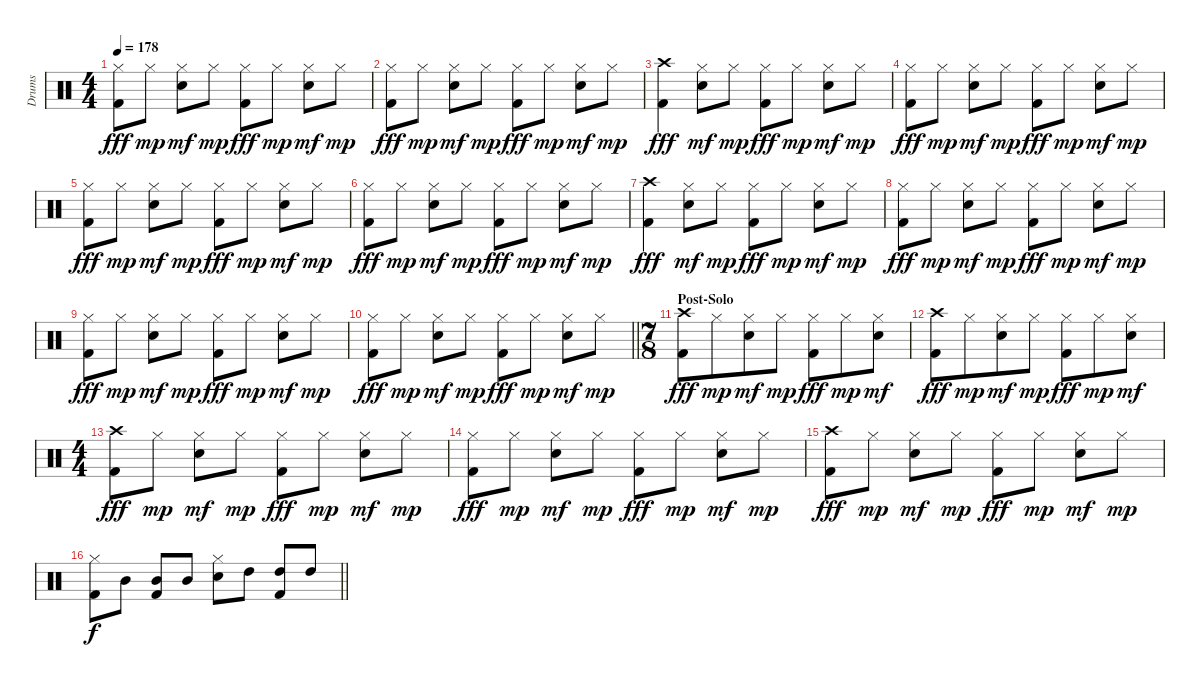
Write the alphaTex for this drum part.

\track ("Drums" "Drums") {instrument percussion}
\staff {score}
\articulation defaults
\ts (4 4)
\tempo 178
\clef neutral
\ks c
("Hi-Hat (closed)" "Kick (hit) 2").8{dy fff} "Hi-Hat (closed)".8{dy mp} ("Hi-Hat (closed)" "Electric Snare (hit)").8{dy mf} "Hi-Hat (closed)".8{dy mp} ("Hi-Hat (closed)" "Kick (hit) 2").8{dy fff} "Hi-Hat (closed)".8{dy mp} ("Hi-Hat (closed)" "Electric Snare (hit)").8{dy mf} "Hi-Hat (closed)".8{dy mp} |
("Hi-Hat (closed)" "Kick (hit) 2").8{dy fff} "Hi-Hat (closed)".8{dy mp} ("Hi-Hat (closed)" "Electric Snare (hit)").8{dy mf} "Hi-Hat (closed)".8{dy mp} ("Hi-Hat (closed)" "Kick (hit) 2").8{dy fff} "Hi-Hat (closed)".8{dy mp} ("Hi-Hat (closed)" "Electric Snare (hit)").8{dy mf} "Hi-Hat (closed)".8{dy mp} |
("Crash high (hit)" "Kick (hit) 2").4{dy fff} ("Hi-Hat (closed)" "Electric Snare (hit)").8{dy mf} "Hi-Hat (closed)".8{dy mp} ("Hi-Hat (closed)" "Kick (hit) 2").8{dy fff} "Hi-Hat (closed)".8{dy mp} ("Hi-Hat (closed)" "Electric Snare (hit)").8{dy mf} "Hi-Hat (closed)".8{dy mp} |
("Hi-Hat (closed)" "Kick (hit) 2").8{dy fff} "Hi-Hat (closed)".8{dy mp} ("Hi-Hat (closed)" "Electric Snare (hit)").8{dy mf} "Hi-Hat (closed)".8{dy mp} ("Hi-Hat (closed)" "Kick (hit) 2").8{dy fff} "Hi-Hat (closed)".8{dy mp} ("Hi-Hat (closed)" "Electric Snare (hit)").8{dy mf} "Hi-Hat (closed)".8{dy mp} |
("Hi-Hat (closed)" "Kick (hit) 2").8{dy fff} "Hi-Hat (closed)".8{dy mp} ("Hi-Hat (closed)" "Electric Snare (hit)").8{dy mf} "Hi-Hat (closed)".8{dy mp} ("Hi-Hat (closed)" "Kick (hit) 2").8{dy fff} "Hi-Hat (closed)".8{dy mp} ("Hi-Hat (closed)" "Electric Snare (hit)").8{dy mf} "Hi-Hat (closed)".8{dy mp} |
("Hi-Hat (closed)" "Kick (hit) 2").8{dy fff} "Hi-Hat (closed)".8{dy mp} ("Hi-Hat (closed)" "Electric Snare (hit)").8{dy mf} "Hi-Hat (closed)".8{dy mp} ("Hi-Hat (closed)" "Kick (hit) 2").8{dy fff} "Hi-Hat (closed)".8{dy mp} ("Hi-Hat (closed)" "Electric Snare (hit)").8{dy mf} "Hi-Hat (closed)".8{dy mp} |
("Crash high (hit)" "Kick (hit) 2").4{dy fff} ("Hi-Hat (closed)" "Electric Snare (hit)").8{dy mf} "Hi-Hat (closed)".8{dy mp} ("Hi-Hat (closed)" "Kick (hit) 2").8{dy fff} "Hi-Hat (closed)".8{dy mp} ("Hi-Hat (closed)" "Electric Snare (hit)").8{dy mf} "Hi-Hat (closed)".8{dy mp} |
("Hi-Hat (closed)" "Kick (hit) 2").8{dy fff} "Hi-Hat (closed)".8{dy mp} ("Hi-Hat (closed)" "Electric Snare (hit)").8{dy mf} "Hi-Hat (closed)".8{dy mp} ("Hi-Hat (closed)" "Kick (hit) 2").8{dy fff} "Hi-Hat (closed)".8{dy mp} ("Hi-Hat (closed)" "Electric Snare (hit)").8{dy mf} "Hi-Hat (closed)".8{dy mp} |
("Hi-Hat (closed)" "Kick (hit) 2").8{dy fff} "Hi-Hat (closed)".8{dy mp} ("Hi-Hat (closed)" "Electric Snare (hit)").8{dy mf} "Hi-Hat (closed)".8{dy mp} ("Hi-Hat (closed)" "Kick (hit) 2").8{dy fff} "Hi-Hat (closed)".8{dy mp} ("Hi-Hat (closed)" "Electric Snare (hit)").8{dy mf} "Hi-Hat (closed)".8{dy mp} |
\barLineRight lightlight
("Hi-Hat (closed)" "Kick (hit) 2").8{dy fff} "Hi-Hat (closed)".8{dy mp} ("Hi-Hat (closed)" "Electric Snare (hit)").8{dy mf} "Hi-Hat (closed)".8{dy mp} ("Hi-Hat (closed)" "Kick (hit) 2").8{dy fff} "Hi-Hat (closed)".8{dy mp} ("Hi-Hat (closed)" "Electric Snare (hit)").8{dy mf} "Hi-Hat (closed)".8{dy mp} |
\ts (7 8)
\section ("" "Post-Solo")
("Crash high (hit)" "Kick (hit) 2").8{dy fff} "Hi-Hat (closed)".8{dy mp} ("Hi-Hat (closed)" "Electric Snare (hit)").8{dy mf} "Hi-Hat (closed)".8{dy mp} ("Hi-Hat (closed)" "Kick (hit) 2").8{dy fff} "Hi-Hat (closed)".8{dy mp} ("Hi-Hat (closed)" "Electric Snare (hit)").8{dy mf} |
("Crash high (hit)" "Kick (hit) 2").8{dy fff} "Hi-Hat (closed)".8{dy mp} ("Hi-Hat (closed)" "Electric Snare (hit)").8{dy mf} "Hi-Hat (closed)".8{dy mp} ("Hi-Hat (closed)" "Kick (hit) 2").8{dy fff} "Hi-Hat (closed)".8{dy mp} ("Hi-Hat (closed)" "Electric Snare (hit)").8{dy mf} |
\ts (4 4)
("Crash high (hit)" "Kick (hit) 2").8{dy fff} "Hi-Hat (closed)".8{dy mp} ("Hi-Hat (closed)" "Electric Snare (hit)").8{dy mf} "Hi-Hat (closed)".8{dy mp} ("Hi-Hat (closed)" "Kick (hit) 2").8{dy fff} "Hi-Hat (closed)".8{dy mp} ("Hi-Hat (closed)" "Electric Snare (hit)").8{dy mf} "Hi-Hat (closed)".8{dy mp} |
("Hi-Hat (closed)" "Kick (hit) 2").8{dy fff} "Hi-Hat (closed)".8{dy mp} ("Hi-Hat (closed)" "Electric Snare (hit)").8{dy mf} "Hi-Hat (closed)".8{dy mp} ("Hi-Hat (closed)" "Kick (hit) 2").8{dy fff} "Hi-Hat (closed)".8{dy mp} ("Hi-Hat (closed)" "Electric Snare (hit)").8{dy mf} "Hi-Hat (closed)".8{dy mp} |
("Crash high (hit)" "Kick (hit) 2").8{dy fff} "Hi-Hat (closed)".8{dy mp} ("Hi-Hat (closed)" "Electric Snare (hit)").8{dy mf} "Hi-Hat (closed)".8{dy mp} ("Hi-Hat (closed)" "Kick (hit) 2").8{dy fff} "Hi-Hat (closed)".8{dy mp} ("Hi-Hat (closed)" "Electric Snare (hit)").8{dy mf} "Hi-Hat (closed)".8{dy mp} |
\barLineRight lightlight
("Hi-Hat (closed)" "Kick (hit) 2").8{dy f} "Mid Tom (hit)".8 ("Mid Tom (hit)" "Kick (hit) 2").8 "Mid Tom (hit)".8 ("Hi-Hat (closed)" "Snare (hit) 2").8 "High Tom (hit)".8 ("High Tom (hit)" "Kick (hit) 2").8 "High Tom (hit)".8
